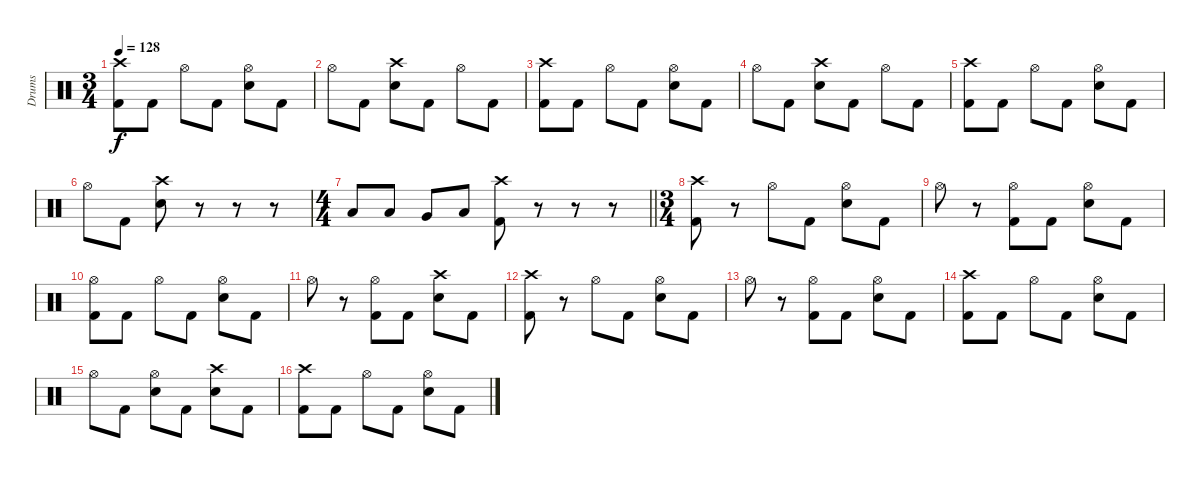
\track ("Drums" "Drums") {instrument percussion}
\staff {score}
\articulation defaults
\ts (3 4)
\tempo 128
\clef neutral
\ks c
("Crash high (hit)" "Kick (hit) 2").8{dy f} "Kick (hit) 2".8 "Hi-Hat (open)".8 "Kick (hit) 2".8 ("Hi-Hat (open)" "Electric Snare (hit)").8 "Kick (hit) 2".8 |
"Hi-Hat (open)".8 "Kick (hit) 2".8 ("Crash high (hit)" "Electric Snare (hit)").8 "Kick (hit) 2".8 "Hi-Hat (open)".8 "Kick (hit) 2".8 |
("Crash high (hit)" "Kick (hit) 2").8 "Kick (hit) 2".8 "Hi-Hat (open)".8 "Kick (hit) 2".8 ("Hi-Hat (open)" "Electric Snare (hit)").8 "Kick (hit) 2".8 |
"Hi-Hat (open)".8 "Kick (hit) 2".8 ("Crash high (hit)" "Electric Snare (hit)").8 "Kick (hit) 2".8 "Hi-Hat (open)".8 "Kick (hit) 2".8 |
("Crash high (hit)" "Kick (hit) 2").8 "Kick (hit) 2".8 "Hi-Hat (open)".8 "Kick (hit) 2".8 ("Hi-Hat (open)" "Electric Snare (hit)").8 "Kick (hit) 2".8 |
"Hi-Hat (open)".8 "Kick (hit) 2".8 ("Crash high (hit)" "Electric Snare (hit)").8 r.8 r.8 r.8 |
\ts (4 4)
\barLineRight lightlight "Low Tom (hit)".8 "Low Floor Tom (hit)".8 "Very Low Tom (hit)".8 "Low Floor Tom (hit)".8
("Crash high (hit)" "Kick (hit) 2").8 r.8 r.8 r.8 |
\ts (3 4)
("Crash high (hit)" "Kick (hit) 2").8 r.8 "Hi-Hat (open)".8 "Kick (hit) 2".8 ("Hi-Hat (open)" "Electric Snare (hit)").8 "Kick (hit) 2".8 |
"Hi-Hat (open)".8 r.8 ("Hi-Hat (open)" "Kick (hit) 2").8 "Kick (hit) 2".8 ("Hi-Hat (open)" "Electric Snare (hit)").8 "Kick (hit) 2".8 |
("Hi-Hat (open)" "Kick (hit) 2").8 "Kick (hit) 2".8 "Hi-Hat (open)".8 "Kick (hit) 2".8 ("Hi-Hat (open)" "Electric Snare (hit)").8 "Kick (hit) 2".8 |
"Hi-Hat (open)".8 r.8 ("Hi-Hat (open)" "Kick (hit) 2").8 "Kick (hit) 2".8 ("Crash high (hit)" "Electric Snare (hit)").8 "Kick (hit) 2".8 |
("Crash high (hit)" "Kick (hit) 2").8 r.8 "Hi-Hat (open)".8 "Kick (hit) 2".8 ("Hi-Hat (open)" "Electric Snare (hit)").8 "Kick (hit) 2".8 |
"Hi-Hat (open)".8 r.8 ("Hi-Hat (open)" "Kick (hit) 2").8 "Kick (hit) 2".8 ("Hi-Hat (open)" "Electric Snare (hit)").8 "Kick (hit) 2".8 |
("Crash high (hit)" "Kick (hit) 2").8 "Kick (hit) 2".8 "Hi-Hat (open)".8 "Kick (hit) 2".8 ("Hi-Hat (open)" "Electric Snare (hit)").8 "Kick (hit) 2".8 |
"Hi-Hat (open)".8 "Kick (hit) 2".8 ("Hi-Hat (open)" "Electric Snare (hit)").8 "Kick (hit) 2".8 ("Crash high (hit)" "Electric Snare (hit)").8 "Kick (hit) 2".8 |
("Crash high (hit)" "Kick (hit) 2").8 "Kick (hit) 2".8 "Hi-Hat (open)".8 "Kick (hit) 2".8 ("Hi-Hat (open)" "Electric Snare (hit)").8 "Kick (hit) 2".8
